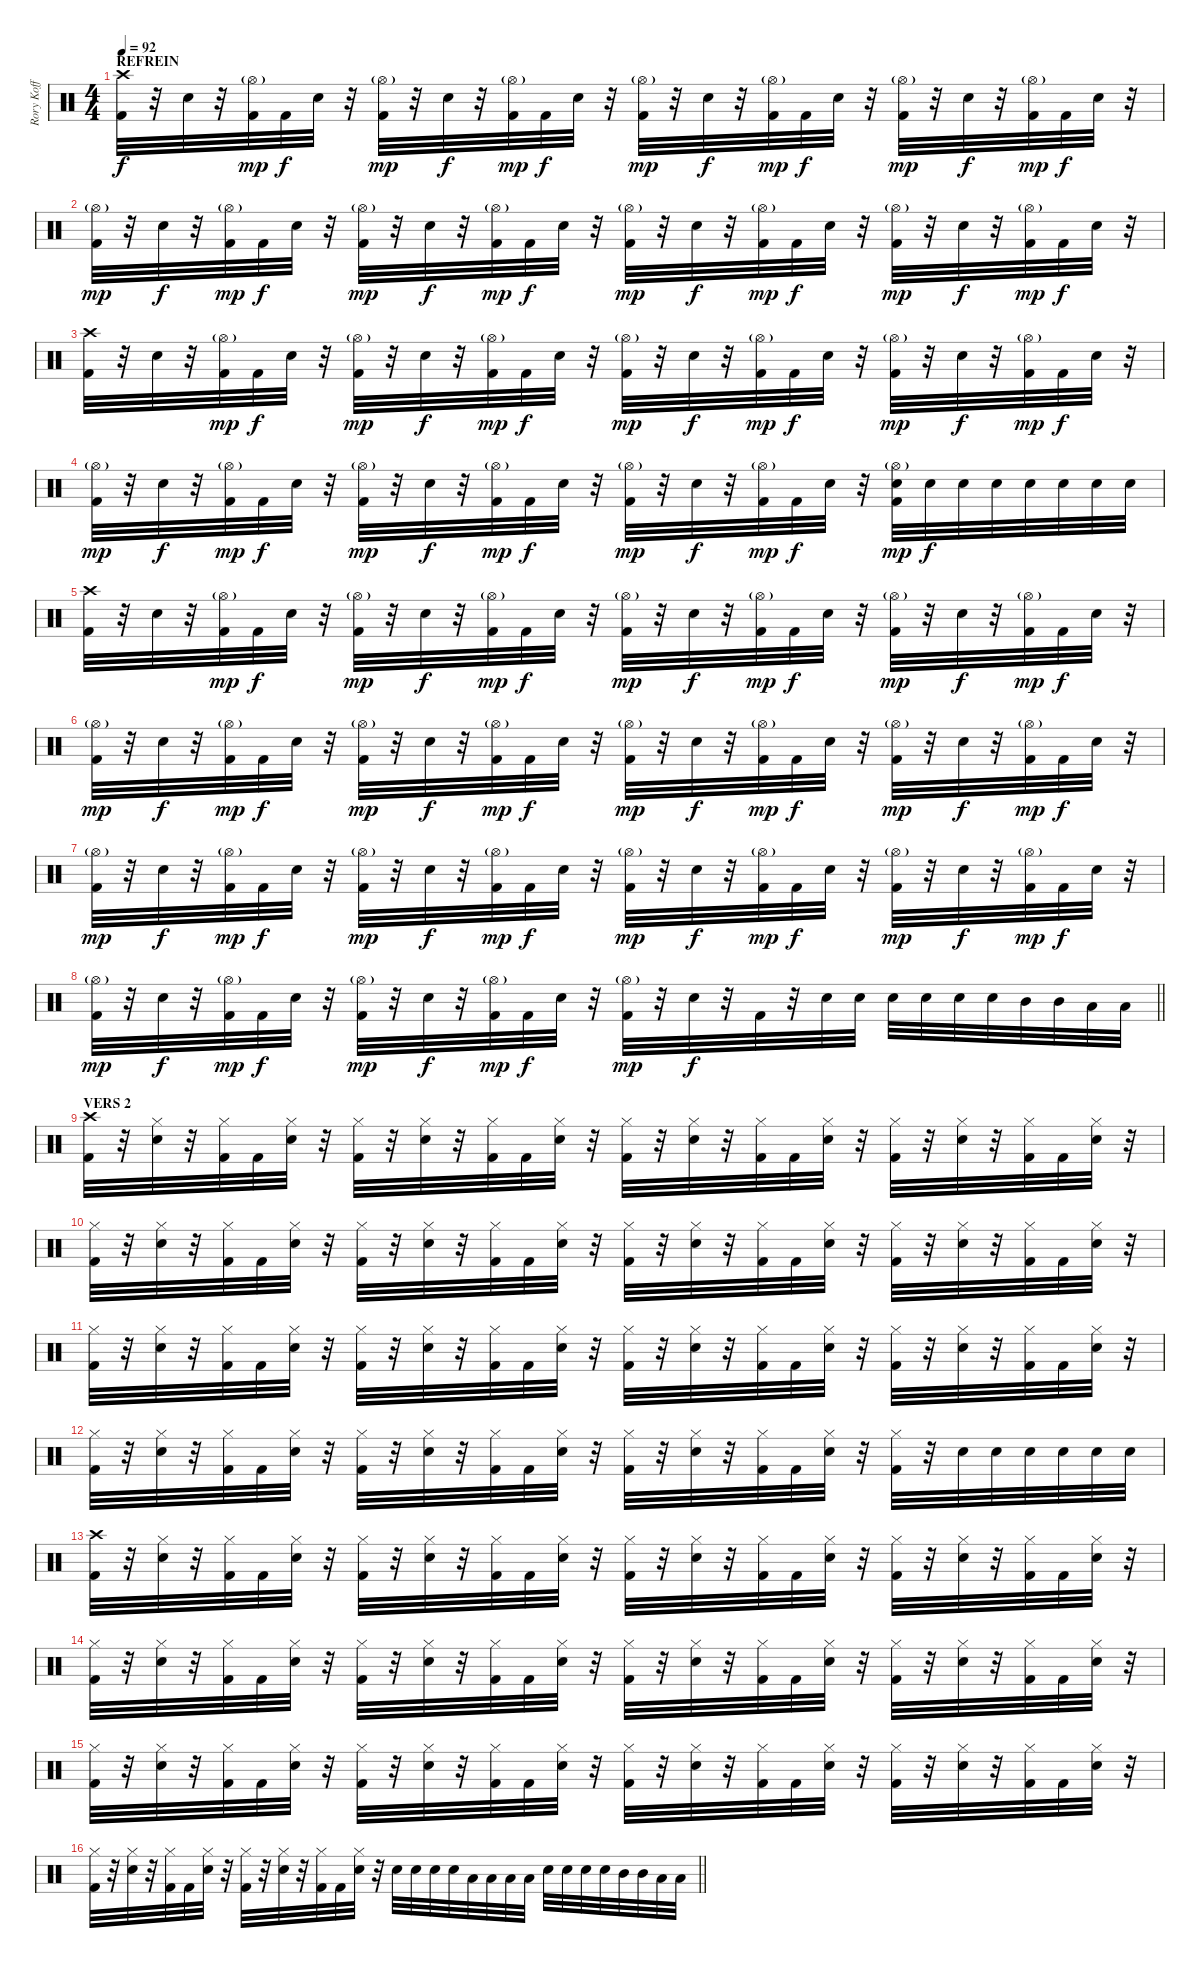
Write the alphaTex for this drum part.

\track ("Rory Koff" "Rory Koff") {instrument percussion}
\staff {score}
\articulation defaults
\ts (4 4)
\section ("" "REFREIN")
\tempo 92
\clef neutral
\ks c
("Crash high (hit)" "Kick (hit) 2").32{dy f} r.32 "Snare (hit) 2".32 r.32 ("Hi-Hat (open)"{g} "Kick (hit) 2").32{dy mp} "Kick (hit) 2".32{dy f} "Snare (hit) 2".32 r.32 ("Hi-Hat (open)"{g} "Kick (hit) 2").32{dy mp} r.32 "Snare (hit) 2".32{dy f} r.32 ("Hi-Hat (open)"{g} "Kick (hit) 2").32{dy mp} "Kick (hit) 2".32{dy f} "Snare (hit) 2".32 r.32 ("Hi-Hat (open)"{g} "Kick (hit) 2").32{dy mp} r.32 "Snare (hit) 2".32{dy f} r.32 ("Hi-Hat (open)"{g} "Kick (hit) 2").32{dy mp} "Kick (hit) 2".32{dy f} "Snare (hit) 2".32 r.32 ("Hi-Hat (open)"{g} "Kick (hit) 2").32{dy mp} r.32 "Snare (hit) 2".32{dy f} r.32 ("Hi-Hat (open)"{g} "Kick (hit) 2").32{dy mp} "Kick (hit) 2".32{dy f} "Snare (hit) 2".32 r.32 |
("Hi-Hat (open)"{g} "Kick (hit) 2").32{dy mp} r.32 "Snare (hit) 2".32{dy f} r.32 ("Hi-Hat (open)"{g} "Kick (hit) 2").32{dy mp} "Kick (hit) 2".32{dy f} "Snare (hit) 2".32 r.32 ("Hi-Hat (open)"{g} "Kick (hit) 2").32{dy mp} r.32 "Snare (hit) 2".32{dy f} r.32 ("Hi-Hat (open)"{g} "Kick (hit) 2").32{dy mp} "Kick (hit) 2".32{dy f} "Snare (hit) 2".32 r.32 ("Hi-Hat (open)"{g} "Kick (hit) 2").32{dy mp} r.32 "Snare (hit) 2".32{dy f} r.32 ("Hi-Hat (open)"{g} "Kick (hit) 2").32{dy mp} "Kick (hit) 2".32{dy f} "Snare (hit) 2".32 r.32 ("Hi-Hat (open)"{g} "Kick (hit) 2").32{dy mp} r.32 "Snare (hit) 2".32{dy f} r.32 ("Hi-Hat (open)"{g} "Kick (hit) 2").32{dy mp} "Kick (hit) 2".32{dy f} "Snare (hit) 2".32 r.32 |
("Crash high (hit)" "Kick (hit) 2").32 r.32 "Snare (hit) 2".32 r.32 ("Hi-Hat (open)"{g} "Kick (hit) 2").32{dy mp} "Kick (hit) 2".32{dy f} "Snare (hit) 2".32 r.32 ("Hi-Hat (open)"{g} "Kick (hit) 2").32{dy mp} r.32 "Snare (hit) 2".32{dy f} r.32 ("Hi-Hat (open)"{g} "Kick (hit) 2").32{dy mp} "Kick (hit) 2".32{dy f} "Snare (hit) 2".32 r.32 ("Hi-Hat (open)"{g} "Kick (hit) 2").32{dy mp} r.32 "Snare (hit) 2".32{dy f} r.32 ("Hi-Hat (open)"{g} "Kick (hit) 2").32{dy mp} "Kick (hit) 2".32{dy f} "Snare (hit) 2".32 r.32 ("Hi-Hat (open)"{g} "Kick (hit) 2").32{dy mp} r.32 "Snare (hit) 2".32{dy f} r.32 ("Hi-Hat (open)"{g} "Kick (hit) 2").32{dy mp} "Kick (hit) 2".32{dy f} "Snare (hit) 2".32 r.32 |
("Hi-Hat (open)"{g} "Kick (hit) 2").32{dy mp} r.32 "Snare (hit) 2".32{dy f} r.32 ("Hi-Hat (open)"{g} "Kick (hit) 2").32{dy mp} "Kick (hit) 2".32{dy f} "Snare (hit) 2".32 r.32 ("Hi-Hat (open)"{g} "Kick (hit) 2").32{dy mp} r.32 "Snare (hit) 2".32{dy f} r.32 ("Hi-Hat (open)"{g} "Kick (hit) 2").32{dy mp} "Kick (hit) 2".32{dy f} "Snare (hit) 2".32 r.32 ("Hi-Hat (open)"{g} "Kick (hit) 2").32{dy mp} r.32 "Snare (hit) 2".32{dy f} r.32 ("Hi-Hat (open)"{g} "Kick (hit) 2").32{dy mp} "Kick (hit) 2".32{dy f} "Snare (hit) 2".32 r.32 ("Hi-Hat (open)"{g} "Snare (hit) 2" "Kick (hit) 2").32{dy mp} "Snare (hit) 2".32{dy f} "Snare (hit) 2".32 "Snare (hit) 2".32 "Snare (hit) 2".32 "Snare (hit) 2".32 "Snare (hit) 2".32 "Snare (hit) 2".32 |
("Crash high (hit)" "Kick (hit) 2").32 r.32 "Snare (hit) 2".32 r.32 ("Hi-Hat (open)"{g} "Kick (hit) 2").32{dy mp} "Kick (hit) 2".32{dy f} "Snare (hit) 2".32 r.32 ("Hi-Hat (open)"{g} "Kick (hit) 2").32{dy mp} r.32 "Snare (hit) 2".32{dy f} r.32 ("Hi-Hat (open)"{g} "Kick (hit) 2").32{dy mp} "Kick (hit) 2".32{dy f} "Snare (hit) 2".32 r.32 ("Hi-Hat (open)"{g} "Kick (hit) 2").32{dy mp} r.32 "Snare (hit) 2".32{dy f} r.32 ("Hi-Hat (open)"{g} "Kick (hit) 2").32{dy mp} "Kick (hit) 2".32{dy f} "Snare (hit) 2".32 r.32 ("Hi-Hat (open)"{g} "Kick (hit) 2").32{dy mp} r.32 "Snare (hit) 2".32{dy f} r.32 ("Hi-Hat (open)"{g} "Kick (hit) 2").32{dy mp} "Kick (hit) 2".32{dy f} "Snare (hit) 2".32 r.32 |
("Hi-Hat (open)"{g} "Kick (hit) 2").32{dy mp} r.32 "Snare (hit) 2".32{dy f} r.32 ("Hi-Hat (open)"{g} "Kick (hit) 2").32{dy mp} "Kick (hit) 2".32{dy f} "Snare (hit) 2".32 r.32 ("Hi-Hat (open)"{g} "Kick (hit) 2").32{dy mp} r.32 "Snare (hit) 2".32{dy f} r.32 ("Hi-Hat (open)"{g} "Kick (hit) 2").32{dy mp} "Kick (hit) 2".32{dy f} "Snare (hit) 2".32 r.32 ("Hi-Hat (open)"{g} "Kick (hit) 2").32{dy mp} r.32 "Snare (hit) 2".32{dy f} r.32 ("Hi-Hat (open)"{g} "Kick (hit) 2").32{dy mp} "Kick (hit) 2".32{dy f} "Snare (hit) 2".32 r.32 ("Hi-Hat (open)"{g} "Kick (hit) 2").32{dy mp} r.32 "Snare (hit) 2".32{dy f} r.32 ("Hi-Hat (open)"{g} "Kick (hit) 2").32{dy mp} "Kick (hit) 2".32{dy f} "Snare (hit) 2".32 r.32 |
("Hi-Hat (open)"{g} "Kick (hit) 2").32{dy mp} r.32 "Snare (hit) 2".32{dy f} r.32 ("Hi-Hat (open)"{g} "Kick (hit) 2").32{dy mp} "Kick (hit) 2".32{dy f} "Snare (hit) 2".32 r.32 ("Hi-Hat (open)"{g} "Kick (hit) 2").32{dy mp} r.32 "Snare (hit) 2".32{dy f} r.32 ("Hi-Hat (open)"{g} "Kick (hit) 2").32{dy mp} "Kick (hit) 2".32{dy f} "Snare (hit) 2".32 r.32 ("Hi-Hat (open)"{g} "Kick (hit) 2").32{dy mp} r.32 "Snare (hit) 2".32{dy f} r.32 ("Hi-Hat (open)"{g} "Kick (hit) 2").32{dy mp} "Kick (hit) 2".32{dy f} "Snare (hit) 2".32 r.32 ("Hi-Hat (open)"{g} "Kick (hit) 2").32{dy mp} r.32 "Snare (hit) 2".32{dy f} r.32 ("Hi-Hat (open)"{g} "Kick (hit) 2").32{dy mp} "Kick (hit) 2".32{dy f} "Snare (hit) 2".32 r.32 |
\barLineRight lightlight
("Hi-Hat (open)"{g} "Kick (hit) 2").32{dy mp} r.32 "Snare (hit) 2".32{dy f} r.32 ("Hi-Hat (open)"{g} "Kick (hit) 2").32{dy mp} "Kick (hit) 2".32{dy f} "Snare (hit) 2".32 r.32 ("Hi-Hat (open)"{g} "Kick (hit) 2").32{dy mp} r.32 "Snare (hit) 2".32{dy f} r.32 ("Hi-Hat (open)"{g} "Kick (hit) 2").32{dy mp} "Kick (hit) 2".32{dy f} "Snare (hit) 2".32 r.32 ("Hi-Hat (open)"{g} "Kick (hit) 2").32{dy mp} r.32 "Snare (hit) 2".32{dy f} r.32 "Kick (hit) 2".32 r.32 "Snare (hit) 2".32 "Snare (hit) 2".32 "Snare (hit) 2".32 "Snare (hit) 2".32 "Snare (hit) 2".32 "Snare (hit) 2".32 "Mid Tom (hit)".32 "Mid Tom (hit)".32 "Low Tom (hit)".32 "Low Tom (hit)".32 |
\section ("" "VERS 2")
("Crash high (hit)" "Kick (hit) 2").32 r.32 ("Hi-Hat (closed)" "Snare (hit) 2").32 r.32 ("Hi-Hat (closed)" "Kick (hit) 2").32 "Kick (hit) 2".32 ("Hi-Hat (closed)" "Snare (hit) 2").32 r.32 ("Hi-Hat (closed)" "Kick (hit) 2").32 r.32 ("Hi-Hat (closed)" "Snare (hit) 2").32 r.32 ("Hi-Hat (closed)" "Kick (hit) 2").32 "Kick (hit) 2".32 ("Hi-Hat (closed)" "Snare (hit) 2").32 r.32 ("Hi-Hat (closed)" "Kick (hit) 2").32 r.32 ("Hi-Hat (closed)" "Snare (hit) 2").32 r.32 ("Hi-Hat (closed)" "Kick (hit) 2").32 "Kick (hit) 2".32 ("Hi-Hat (closed)" "Snare (hit) 2").32 r.32 ("Hi-Hat (closed)" "Kick (hit) 2").32 r.32 ("Hi-Hat (closed)" "Snare (hit) 2").32 r.32 ("Hi-Hat (closed)" "Kick (hit) 2").32 "Kick (hit) 2".32 ("Hi-Hat (closed)" "Snare (hit) 2").32 r.32 |
("Hi-Hat (closed)" "Kick (hit) 2").32 r.32 ("Hi-Hat (closed)" "Snare (hit) 2").32 r.32 ("Hi-Hat (closed)" "Kick (hit) 2").32 "Kick (hit) 2".32 ("Hi-Hat (closed)" "Snare (hit) 2").32 r.32 ("Hi-Hat (closed)" "Kick (hit) 2").32 r.32 ("Hi-Hat (closed)" "Snare (hit) 2").32 r.32 ("Hi-Hat (closed)" "Kick (hit) 2").32 "Kick (hit) 2".32 ("Hi-Hat (closed)" "Snare (hit) 2").32 r.32 ("Hi-Hat (closed)" "Kick (hit) 2").32 r.32 ("Hi-Hat (closed)" "Snare (hit) 2").32 r.32 ("Hi-Hat (closed)" "Kick (hit) 2").32 "Kick (hit) 2".32 ("Hi-Hat (closed)" "Snare (hit) 2").32 r.32 ("Hi-Hat (closed)" "Kick (hit) 2").32 r.32 ("Hi-Hat (closed)" "Snare (hit) 2").32 r.32 ("Hi-Hat (closed)" "Kick (hit) 2").32 "Kick (hit) 2".32 ("Hi-Hat (closed)" "Snare (hit) 2").32 r.32 |
("Hi-Hat (closed)" "Kick (hit) 2").32 r.32 ("Hi-Hat (closed)" "Snare (hit) 2").32 r.32 ("Hi-Hat (closed)" "Kick (hit) 2").32 "Kick (hit) 2".32 ("Hi-Hat (closed)" "Snare (hit) 2").32 r.32 ("Hi-Hat (closed)" "Kick (hit) 2").32 r.32 ("Hi-Hat (closed)" "Snare (hit) 2").32 r.32 ("Hi-Hat (closed)" "Kick (hit) 2").32 "Kick (hit) 2".32 ("Hi-Hat (closed)" "Snare (hit) 2").32 r.32 ("Hi-Hat (closed)" "Kick (hit) 2").32 r.32 ("Hi-Hat (closed)" "Snare (hit) 2").32 r.32 ("Hi-Hat (closed)" "Kick (hit) 2").32 "Kick (hit) 2".32 ("Hi-Hat (closed)" "Snare (hit) 2").32 r.32 ("Hi-Hat (closed)" "Kick (hit) 2").32 r.32 ("Hi-Hat (closed)" "Snare (hit) 2").32 r.32 ("Hi-Hat (closed)" "Kick (hit) 2").32 "Kick (hit) 2".32 ("Hi-Hat (closed)" "Snare (hit) 2").32 r.32 |
("Hi-Hat (closed)" "Kick (hit) 2").32 r.32 ("Hi-Hat (closed)" "Snare (hit) 2").32 r.32 ("Hi-Hat (closed)" "Kick (hit) 2").32 "Kick (hit) 2".32 ("Hi-Hat (closed)" "Snare (hit) 2").32 r.32 ("Hi-Hat (closed)" "Kick (hit) 2").32 r.32 ("Hi-Hat (closed)" "Snare (hit) 2").32 r.32 ("Hi-Hat (closed)" "Kick (hit) 2").32 "Kick (hit) 2".32 ("Hi-Hat (closed)" "Snare (hit) 2").32 r.32 ("Hi-Hat (closed)" "Kick (hit) 2").32 r.32 ("Hi-Hat (closed)" "Snare (hit) 2").32 r.32 ("Hi-Hat (closed)" "Kick (hit) 2").32 "Kick (hit) 2".32 ("Hi-Hat (closed)" "Snare (hit) 2").32 r.32 ("Hi-Hat (closed)" "Kick (hit) 2").32 r.32 "Snare (hit) 2".32 "Snare (hit) 2".32 "Snare (hit) 2".32 "Snare (hit) 2".32 "Snare (hit) 2".32 "Snare (hit) 2".32 |
("Crash high (hit)" "Kick (hit) 2").32 r.32 ("Hi-Hat (closed)" "Snare (hit) 2").32 r.32 ("Hi-Hat (closed)" "Kick (hit) 2").32 "Kick (hit) 2".32 ("Hi-Hat (closed)" "Snare (hit) 2").32 r.32 ("Hi-Hat (closed)" "Kick (hit) 2").32 r.32 ("Hi-Hat (closed)" "Snare (hit) 2").32 r.32 ("Hi-Hat (closed)" "Kick (hit) 2").32 "Kick (hit) 2".32 ("Hi-Hat (closed)" "Snare (hit) 2").32 r.32 ("Hi-Hat (closed)" "Kick (hit) 2").32 r.32 ("Hi-Hat (closed)" "Snare (hit) 2").32 r.32 ("Hi-Hat (closed)" "Kick (hit) 2").32 "Kick (hit) 2".32 ("Hi-Hat (closed)" "Snare (hit) 2").32 r.32 ("Hi-Hat (closed)" "Kick (hit) 2").32 r.32 ("Hi-Hat (closed)" "Snare (hit) 2").32 r.32 ("Hi-Hat (closed)" "Kick (hit) 2").32 "Kick (hit) 2".32 ("Hi-Hat (closed)" "Snare (hit) 2").32 r.32 |
("Hi-Hat (closed)" "Kick (hit) 2").32 r.32 ("Hi-Hat (closed)" "Snare (hit) 2").32 r.32 ("Hi-Hat (closed)" "Kick (hit) 2").32 "Kick (hit) 2".32 ("Hi-Hat (closed)" "Snare (hit) 2").32 r.32 ("Hi-Hat (closed)" "Kick (hit) 2").32 r.32 ("Hi-Hat (closed)" "Snare (hit) 2").32 r.32 ("Hi-Hat (closed)" "Kick (hit) 2").32 "Kick (hit) 2".32 ("Hi-Hat (closed)" "Snare (hit) 2").32 r.32 ("Hi-Hat (closed)" "Kick (hit) 2").32 r.32 ("Hi-Hat (closed)" "Snare (hit) 2").32 r.32 ("Hi-Hat (closed)" "Kick (hit) 2").32 "Kick (hit) 2".32 ("Hi-Hat (closed)" "Snare (hit) 2").32 r.32 ("Hi-Hat (closed)" "Kick (hit) 2").32 r.32 ("Hi-Hat (closed)" "Snare (hit) 2").32 r.32 ("Hi-Hat (closed)" "Kick (hit) 2").32 "Kick (hit) 2".32 ("Hi-Hat (closed)" "Snare (hit) 2").32 r.32 |
("Hi-Hat (closed)" "Kick (hit) 2").32 r.32 ("Hi-Hat (closed)" "Snare (hit) 2").32 r.32 ("Hi-Hat (closed)" "Kick (hit) 2").32 "Kick (hit) 2".32 ("Hi-Hat (closed)" "Snare (hit) 2").32 r.32 ("Hi-Hat (closed)" "Kick (hit) 2").32 r.32 ("Hi-Hat (closed)" "Snare (hit) 2").32 r.32 ("Hi-Hat (closed)" "Kick (hit) 2").32 "Kick (hit) 2".32 ("Hi-Hat (closed)" "Snare (hit) 2").32 r.32 ("Hi-Hat (closed)" "Kick (hit) 2").32 r.32 ("Hi-Hat (closed)" "Snare (hit) 2").32 r.32 ("Hi-Hat (closed)" "Kick (hit) 2").32 "Kick (hit) 2".32 ("Hi-Hat (closed)" "Snare (hit) 2").32 r.32 ("Hi-Hat (closed)" "Kick (hit) 2").32 r.32 ("Hi-Hat (closed)" "Snare (hit) 2").32 r.32 ("Hi-Hat (closed)" "Kick (hit) 2").32 "Kick (hit) 2".32 ("Hi-Hat (closed)" "Snare (hit) 2").32 r.32 |
\barLineRight lightlight
("Hi-Hat (closed)" "Kick (hit) 2").32 r.32 ("Hi-Hat (closed)" "Snare (hit) 2").32 r.32 ("Hi-Hat (closed)" "Kick (hit) 2").32 "Kick (hit) 2".32 ("Hi-Hat (closed)" "Snare (hit) 2").32 r.32 ("Hi-Hat (closed)" "Kick (hit) 2").32 r.32 ("Hi-Hat (closed)" "Snare (hit) 2").32 r.32 ("Hi-Hat (closed)" "Kick (hit) 2").32 "Kick (hit) 2".32 ("Hi-Hat (closed)" "Snare (hit) 2").32 r.32 "Snare (hit) 2".32 "Snare (hit) 2".32 "Snare (hit) 2".32 "Snare (hit) 2".32 "Low Tom (hit)".32 "Low Tom (hit)".32 "Low Tom (hit)".32 "Low Tom (hit)".32 "Snare (hit) 2".32 "Snare (hit) 2".32 "Snare (hit) 2".32 "Snare (hit) 2".32 "Mid Tom (hit)".32 "Mid Tom (hit)".32 "Low Tom (hit)".32 "Low Tom (hit)".32
